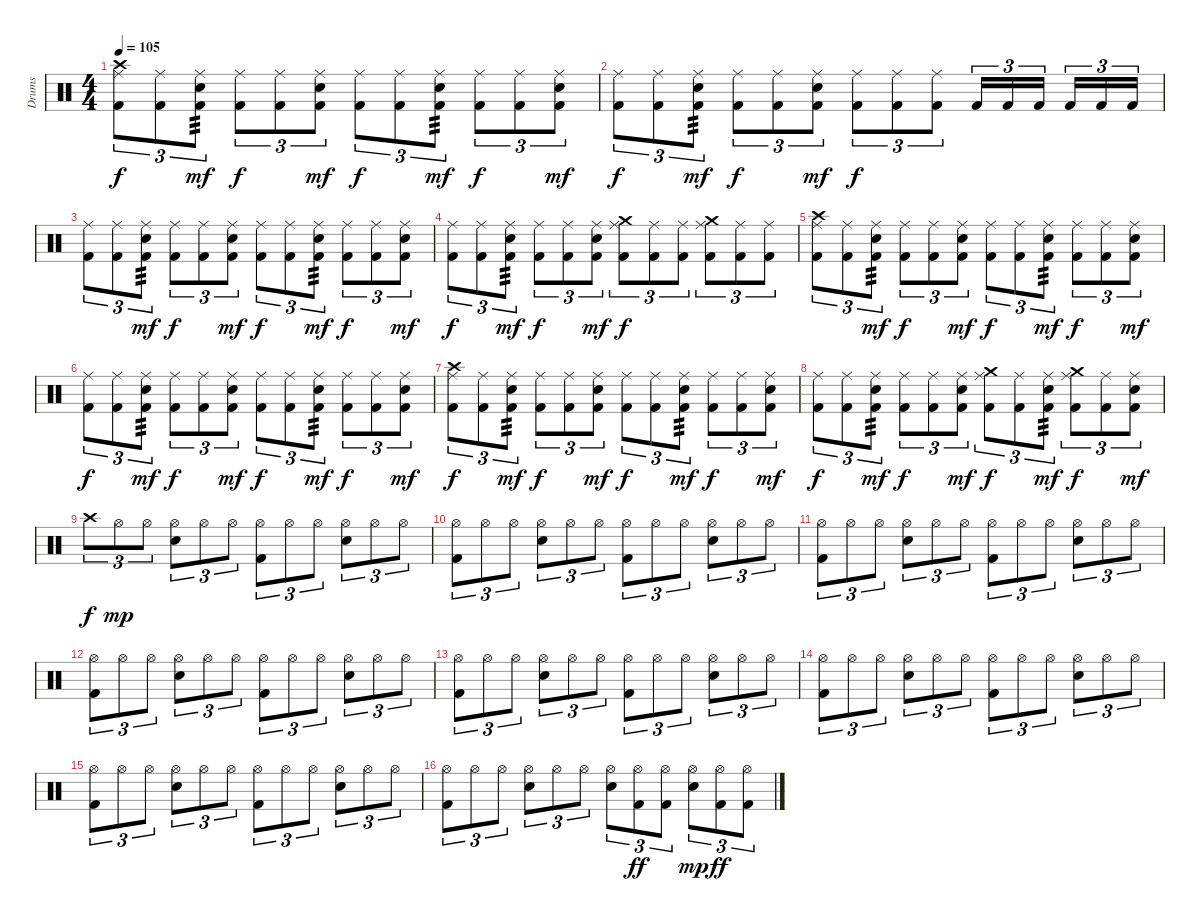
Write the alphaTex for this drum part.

\track ("Drums" "Drums") {instrument percussion}
\staff {score}
\articulation defaults
\ts (4 4)
\tempo 105
\clef neutral
\ks c
("Ride (middle)" "Crash high (hit)" "Kick (hit) 2").8{tu (3 2) dy f} ("Ride (middle)" "Kick (hit) 2").8{tu (3 2)} ("Ride (middle)" "Electric Snare (hit)" "Kick (hit) 2").8{tu (3 2) tp 3 dy mf} ("Ride (middle)" "Kick (hit) 2").8{tu (3 2) dy f} ("Ride (middle)" "Kick (hit) 2").8{tu (3 2)} ("Ride (middle)" "Electric Snare (hit)" "Kick (hit) 2").8{tu (3 2) dy mf} ("Ride (middle)" "Kick (hit) 2").8{tu (3 2) dy f} ("Ride (middle)" "Kick (hit) 2").8{tu (3 2)} ("Ride (middle)" "Electric Snare (hit)" "Kick (hit) 2").8{tu (3 2) tp 3 dy mf} ("Ride (middle)" "Kick (hit) 2").8{tu (3 2) dy f} ("Ride (middle)" "Kick (hit) 2").8{tu (3 2)} ("Ride (middle)" "Electric Snare (hit)" "Kick (hit) 2").8{tu (3 2) dy mf} |
("Ride (middle)" "Kick (hit) 2").8{tu (3 2) dy f} ("Ride (middle)" "Kick (hit) 2").8{tu (3 2)} ("Ride (middle)" "Electric Snare (hit)" "Kick (hit) 2").8{tu (3 2) tp 3 dy mf} ("Ride (middle)" "Kick (hit) 2").8{tu (3 2) dy f} ("Ride (middle)" "Kick (hit) 2").8{tu (3 2)} ("Ride (middle)" "Electric Snare (hit)" "Kick (hit) 2").8{tu (3 2) dy mf} ("Ride (middle)" "Kick (hit) 2").8{tu (3 2) dy f} ("Ride (middle)" "Kick (hit) 2").8{tu (3 2)} ("Ride (middle)" "Kick (hit) 2").8{tu (3 2)} "Kick (hit) 2".16{tu (3 2)} "Kick (hit) 2".16{tu (3 2)} "Kick (hit) 2".16{tu (3 2)} "Kick (hit) 2".16{tu (3 2)} "Kick (hit) 2".16{tu (3 2)} "Kick (hit) 2".16{tu (3 2)} |
("Ride (middle)" "Kick (hit) 2").8{tu (3 2)} ("Ride (middle)" "Kick (hit) 2").8{tu (3 2)} ("Ride (middle)" "Electric Snare (hit)" "Kick (hit) 2").8{tu (3 2) tp 3 dy mf} ("Ride (middle)" "Kick (hit) 2").8{tu (3 2) dy f} ("Ride (middle)" "Kick (hit) 2").8{tu (3 2)} ("Ride (middle)" "Electric Snare (hit)" "Kick (hit) 2").8{tu (3 2) dy mf} ("Ride (middle)" "Kick (hit) 2").8{tu (3 2) dy f} ("Ride (middle)" "Kick (hit) 2").8{tu (3 2)} ("Ride (middle)" "Electric Snare (hit)" "Kick (hit) 2").8{tu (3 2) tp 3 dy mf} ("Ride (middle)" "Kick (hit) 2").8{tu (3 2) dy f} ("Ride (middle)" "Kick (hit) 2").8{tu (3 2)} ("Ride (middle)" "Electric Snare (hit)" "Kick (hit) 2").8{tu (3 2) dy mf} |
("Ride (middle)" "Kick (hit) 2").8{tu (3 2) dy f} ("Ride (middle)" "Kick (hit) 2").8{tu (3 2)} ("Ride (middle)" "Electric Snare (hit)" "Kick (hit) 2").8{tu (3 2) tp 3 dy mf} ("Ride (middle)" "Kick (hit) 2").8{tu (3 2) dy f} ("Ride (middle)" "Kick (hit) 2").8{tu (3 2)} ("Ride (middle)" "Electric Snare (hit)" "Kick (hit) 2").8{tu (3 2) dy mf} ("Ride (middle)" "Crash medium (hit)" "Kick (hit) 2").8{tu (3 2) dy f} ("Ride (middle)" "Kick (hit) 2").8{tu (3 2)} ("Ride (middle)" "Kick (hit) 2").8{tu (3 2)} ("Ride (middle)" "Crash medium (hit)" "Kick (hit) 2").8{tu (3 2)} ("Ride (middle)" "Kick (hit) 2").8{tu (3 2)} ("Ride (middle)" "Kick (hit) 2").8{tu (3 2)} |
("Ride (middle)" "Crash high (hit)" "Kick (hit) 2").8{tu (3 2)} ("Ride (middle)" "Kick (hit) 2").8{tu (3 2)} ("Ride (middle)" "Electric Snare (hit)" "Kick (hit) 2").8{tu (3 2) tp 3 dy mf} ("Ride (middle)" "Kick (hit) 2").8{tu (3 2) dy f} ("Ride (middle)" "Kick (hit) 2").8{tu (3 2)} ("Ride (middle)" "Electric Snare (hit)" "Kick (hit) 2").8{tu (3 2) dy mf} ("Ride (middle)" "Kick (hit) 2").8{tu (3 2) dy f} ("Ride (middle)" "Kick (hit) 2").8{tu (3 2)} ("Ride (middle)" "Electric Snare (hit)" "Kick (hit) 2").8{tu (3 2) tp 3 dy mf} ("Ride (middle)" "Kick (hit) 2").8{tu (3 2) dy f} ("Ride (middle)" "Kick (hit) 2").8{tu (3 2)} ("Ride (middle)" "Electric Snare (hit)" "Kick (hit) 2").8{tu (3 2) dy mf} |
("Ride (middle)" "Kick (hit) 2").8{tu (3 2) dy f} ("Ride (middle)" "Kick (hit) 2").8{tu (3 2)} ("Ride (middle)" "Electric Snare (hit)" "Kick (hit) 2").8{tu (3 2) tp 3 dy mf} ("Ride (middle)" "Kick (hit) 2").8{tu (3 2) dy f} ("Ride (middle)" "Kick (hit) 2").8{tu (3 2)} ("Ride (middle)" "Electric Snare (hit)" "Kick (hit) 2").8{tu (3 2) dy mf} ("Ride (middle)" "Kick (hit) 2").8{tu (3 2) dy f} ("Ride (middle)" "Kick (hit) 2").8{tu (3 2)} ("Ride (middle)" "Electric Snare (hit)" "Kick (hit) 2").8{tu (3 2) tp 3 dy mf} ("Ride (middle)" "Kick (hit) 2").8{tu (3 2) dy f} ("Ride (middle)" "Kick (hit) 2").8{tu (3 2)} ("Ride (middle)" "Electric Snare (hit)" "Kick (hit) 2").8{tu (3 2) dy mf} |
("Ride (middle)" "Crash high (hit)" "Kick (hit) 2").8{tu (3 2) dy f} ("Ride (middle)" "Kick (hit) 2").8{tu (3 2)} ("Ride (middle)" "Electric Snare (hit)" "Kick (hit) 2").8{tu (3 2) tp 3 dy mf} ("Ride (middle)" "Kick (hit) 2").8{tu (3 2) dy f} ("Ride (middle)" "Kick (hit) 2").8{tu (3 2)} ("Ride (middle)" "Electric Snare (hit)" "Kick (hit) 2").8{tu (3 2) dy mf} ("Ride (middle)" "Kick (hit) 2").8{tu (3 2) dy f} ("Ride (middle)" "Kick (hit) 2").8{tu (3 2)} ("Ride (middle)" "Electric Snare (hit)" "Kick (hit) 2").8{tu (3 2) tp 3 dy mf} ("Ride (middle)" "Kick (hit) 2").8{tu (3 2) dy f} ("Ride (middle)" "Kick (hit) 2").8{tu (3 2)} ("Ride (middle)" "Electric Snare (hit)" "Kick (hit) 2").8{tu (3 2) dy mf} |
("Ride (middle)" "Kick (hit) 2").8{tu (3 2) dy f} ("Ride (middle)" "Kick (hit) 2").8{tu (3 2)} ("Ride (middle)" "Electric Snare (hit)" "Kick (hit) 2").8{tu (3 2) tp 3 dy mf} ("Ride (middle)" "Kick (hit) 2").8{tu (3 2) dy f} ("Ride (middle)" "Kick (hit) 2").8{tu (3 2)} ("Ride (middle)" "Electric Snare (hit)" "Kick (hit) 2").8{tu (3 2) dy mf} ("Crash medium (hit)" "Ride (middle)" "Kick (hit) 2").8{tu (3 2) dy f} ("Ride (middle)" "Kick (hit) 2").8{tu (3 2)} ("Ride (middle)" "Electric Snare (hit)" "Kick (hit) 2").8{tu (3 2) tp 3 dy mf} ("Crash medium (hit)" "Ride (middle)" "Kick (hit) 2").8{tu (3 2) dy f} ("Ride (middle)" "Kick (hit) 2").8{tu (3 2)} ("Ride (middle)" "Electric Snare (hit)" "Kick (hit) 2").8{tu (3 2) dy mf} |
"Crash high (hit)".8{tu (3 2) dy f} "Hi-Hat (open)".8{tu (3 2) dy mp} "Hi-Hat (open)".8{tu (3 2)} ("Hi-Hat (open)" "Electric Snare (hit)").8{tu (3 2)} "Hi-Hat (open)".8{tu (3 2)} "Hi-Hat (open)".8{tu (3 2)} ("Hi-Hat (open)" "Kick (hit) 2").8{tu (3 2)} "Hi-Hat (open)".8{tu (3 2)} "Hi-Hat (open)".8{tu (3 2)} ("Hi-Hat (open)" "Electric Snare (hit)").8{tu (3 2)} "Hi-Hat (open)".8{tu (3 2)} "Hi-Hat (open)".8{tu (3 2)} |
("Hi-Hat (open)" "Kick (hit) 2").8{tu (3 2)} "Hi-Hat (open)".8{tu (3 2)} "Hi-Hat (open)".8{tu (3 2)} ("Hi-Hat (open)" "Electric Snare (hit)").8{tu (3 2)} "Hi-Hat (open)".8{tu (3 2)} "Hi-Hat (open)".8{tu (3 2)} ("Hi-Hat (open)" "Kick (hit) 2").8{tu (3 2)} "Hi-Hat (open)".8{tu (3 2)} "Hi-Hat (open)".8{tu (3 2)} ("Hi-Hat (open)" "Electric Snare (hit)").8{tu (3 2)} "Hi-Hat (open)".8{tu (3 2)} "Hi-Hat (open)".8{tu (3 2)} |
("Hi-Hat (open)" "Kick (hit) 2").8{tu (3 2)} "Hi-Hat (open)".8{tu (3 2)} "Hi-Hat (open)".8{tu (3 2)} ("Hi-Hat (open)" "Electric Snare (hit)").8{tu (3 2)} "Hi-Hat (open)".8{tu (3 2)} "Hi-Hat (open)".8{tu (3 2)} ("Hi-Hat (open)" "Kick (hit) 2").8{tu (3 2)} "Hi-Hat (open)".8{tu (3 2)} "Hi-Hat (open)".8{tu (3 2)} ("Hi-Hat (open)" "Electric Snare (hit)").8{tu (3 2)} "Hi-Hat (open)".8{tu (3 2)} "Hi-Hat (open)".8{tu (3 2)} |
("Hi-Hat (open)" "Kick (hit) 2").8{tu (3 2)} "Hi-Hat (open)".8{tu (3 2)} "Hi-Hat (open)".8{tu (3 2)} ("Hi-Hat (open)" "Electric Snare (hit)").8{tu (3 2)} "Hi-Hat (open)".8{tu (3 2)} "Hi-Hat (open)".8{tu (3 2)} ("Hi-Hat (open)" "Kick (hit) 2").8{tu (3 2)} "Hi-Hat (open)".8{tu (3 2)} "Hi-Hat (open)".8{tu (3 2)} ("Hi-Hat (open)" "Electric Snare (hit)").8{tu (3 2)} "Hi-Hat (open)".8{tu (3 2)} "Hi-Hat (open)".8{tu (3 2)} |
("Hi-Hat (open)" "Kick (hit) 2").8{tu (3 2)} "Hi-Hat (open)".8{tu (3 2)} "Hi-Hat (open)".8{tu (3 2)} ("Hi-Hat (open)" "Electric Snare (hit)").8{tu (3 2)} "Hi-Hat (open)".8{tu (3 2)} "Hi-Hat (open)".8{tu (3 2)} ("Hi-Hat (open)" "Kick (hit) 2").8{tu (3 2)} "Hi-Hat (open)".8{tu (3 2)} "Hi-Hat (open)".8{tu (3 2)} ("Hi-Hat (open)" "Electric Snare (hit)").8{tu (3 2)} "Hi-Hat (open)".8{tu (3 2)} "Hi-Hat (open)".8{tu (3 2)} |
("Hi-Hat (open)" "Kick (hit) 2").8{tu (3 2)} "Hi-Hat (open)".8{tu (3 2)} "Hi-Hat (open)".8{tu (3 2)} ("Hi-Hat (open)" "Electric Snare (hit)").8{tu (3 2)} "Hi-Hat (open)".8{tu (3 2)} "Hi-Hat (open)".8{tu (3 2)} ("Hi-Hat (open)" "Kick (hit) 2").8{tu (3 2)} "Hi-Hat (open)".8{tu (3 2)} "Hi-Hat (open)".8{tu (3 2)} ("Hi-Hat (open)" "Electric Snare (hit)").8{tu (3 2)} "Hi-Hat (open)".8{tu (3 2)} "Hi-Hat (open)".8{tu (3 2)} |
("Hi-Hat (open)" "Kick (hit) 2").8{tu (3 2)} "Hi-Hat (open)".8{tu (3 2)} "Hi-Hat (open)".8{tu (3 2)} ("Hi-Hat (open)" "Electric Snare (hit)").8{tu (3 2)} "Hi-Hat (open)".8{tu (3 2)} "Hi-Hat (open)".8{tu (3 2)} ("Hi-Hat (open)" "Kick (hit) 2").8{tu (3 2)} "Hi-Hat (open)".8{tu (3 2)} "Hi-Hat (open)".8{tu (3 2)} ("Hi-Hat (open)" "Electric Snare (hit)").8{tu (3 2)} "Hi-Hat (open)".8{tu (3 2)} "Hi-Hat (open)".8{tu (3 2)} |
("Hi-Hat (open)" "Kick (hit) 2").8{tu (3 2)} "Hi-Hat (open)".8{tu (3 2)} "Hi-Hat (open)".8{tu (3 2)} ("Hi-Hat (open)" "Electric Snare (hit)").8{tu (3 2)} "Hi-Hat (open)".8{tu (3 2)} "Hi-Hat (open)".8{tu (3 2)} ("Hi-Hat (open)" "Electric Snare (hit)").8{tu (3 2)} ("Hi-Hat (open)" "Kick (hit) 2").8{tu (3 2) dy ff} ("Hi-Hat (open)" "Kick (hit) 2").8{tu (3 2)} ("Hi-Hat (open)" "Electric Snare (hit)").8{tu (3 2) dy mp} ("Hi-Hat (open)" "Kick (hit) 2").8{tu (3 2) dy ff} ("Hi-Hat (open)" "Kick (hit) 2").8{tu (3 2)}
